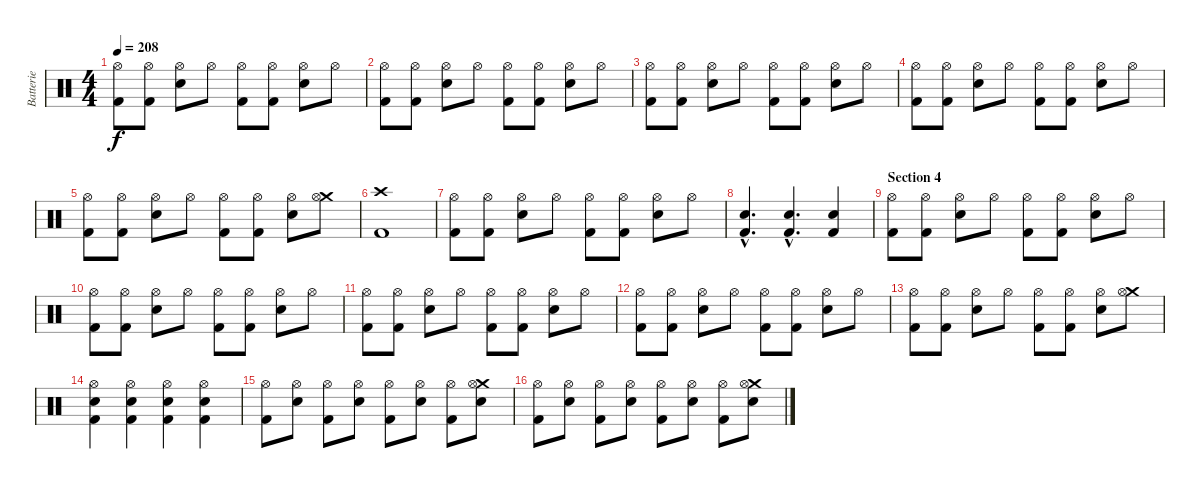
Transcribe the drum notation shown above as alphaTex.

\track ("Batterie" "Batterie") {instrument percussion}
\staff {score}
\articulation defaults
\ts (4 4)
\tempo 208
\clef neutral
\ks c
("Hi-Hat (open)" "Kick (hit) 2").8{dy f} ("Hi-Hat (open)" "Kick (hit) 2").8 ("Hi-Hat (open)" "Snare (hit) 2").8 "Hi-Hat (open)".8 ("Hi-Hat (open)" "Kick (hit) 2").8 ("Hi-Hat (open)" "Kick (hit) 2").8 ("Hi-Hat (open)" "Snare (hit) 2").8 "Hi-Hat (open)".8 |
("Hi-Hat (open)" "Kick (hit) 2").8 ("Hi-Hat (open)" "Kick (hit) 2").8 ("Hi-Hat (open)" "Snare (hit) 2").8 "Hi-Hat (open)".8 ("Hi-Hat (open)" "Kick (hit) 2").8 ("Hi-Hat (open)" "Kick (hit) 2").8 ("Hi-Hat (open)" "Snare (hit) 2").8 "Hi-Hat (open)".8 |
("Hi-Hat (open)" "Kick (hit) 2").8 ("Hi-Hat (open)" "Kick (hit) 2").8 ("Hi-Hat (open)" "Snare (hit) 2").8 "Hi-Hat (open)".8 ("Hi-Hat (open)" "Kick (hit) 2").8 ("Hi-Hat (open)" "Kick (hit) 2").8 ("Hi-Hat (open)" "Snare (hit) 2").8 "Hi-Hat (open)".8 |
("Hi-Hat (open)" "Kick (hit) 2").8 ("Hi-Hat (open)" "Kick (hit) 2").8 ("Hi-Hat (open)" "Snare (hit) 2").8 "Hi-Hat (open)".8 ("Hi-Hat (open)" "Kick (hit) 2").8 ("Hi-Hat (open)" "Kick (hit) 2").8 ("Hi-Hat (open)" "Snare (hit) 2").8 "Hi-Hat (open)".8 |
("Hi-Hat (open)" "Kick (hit) 2").8 ("Hi-Hat (open)" "Kick (hit) 2").8 ("Hi-Hat (open)" "Snare (hit) 2").8 "Hi-Hat (open)".8 ("Hi-Hat (open)" "Kick (hit) 2").8 ("Hi-Hat (open)" "Kick (hit) 2").8 ("Hi-Hat (open)" "Snare (hit) 2").8 ("Crash medium (hit)" "Hi-Hat (open)").8 |
("Crash high (hit)" "Kick (hit) 2").1 |
("Hi-Hat (open)" "Kick (hit) 2").8 ("Hi-Hat (open)" "Kick (hit) 2").8 ("Hi-Hat (open)" "Snare (hit) 2").8 "Hi-Hat (open)".8 ("Hi-Hat (open)" "Kick (hit) 2").8 ("Hi-Hat (open)" "Kick (hit) 2").8 ("Hi-Hat (open)" "Snare (hit) 2").8 "Hi-Hat (open)".8 |
("Snare (hit) 2"{hac} "Kick (hit) 2"{hac}).4{d} ("Snare (hit) 2"{hac} "Kick (hit) 2"{hac}).4{d} ("Snare (hit) 2" "Kick (hit) 2").4 |
\section ("" "Section 4")
("Hi-Hat (open)" "Kick (hit) 2").8 ("Hi-Hat (open)" "Kick (hit) 2").8 ("Hi-Hat (open)" "Snare (hit) 2").8 "Hi-Hat (open)".8 ("Hi-Hat (open)" "Kick (hit) 2").8 ("Hi-Hat (open)" "Kick (hit) 2").8 ("Hi-Hat (open)" "Snare (hit) 2").8 "Hi-Hat (open)".8 |
("Hi-Hat (open)" "Kick (hit) 2").8 ("Hi-Hat (open)" "Kick (hit) 2").8 ("Hi-Hat (open)" "Snare (hit) 2").8 "Hi-Hat (open)".8 ("Hi-Hat (open)" "Kick (hit) 2").8 ("Hi-Hat (open)" "Kick (hit) 2").8 ("Hi-Hat (open)" "Snare (hit) 2").8 "Hi-Hat (open)".8 |
("Hi-Hat (open)" "Kick (hit) 2").8 ("Hi-Hat (open)" "Kick (hit) 2").8 ("Hi-Hat (open)" "Snare (hit) 2").8 "Hi-Hat (open)".8 ("Hi-Hat (open)" "Kick (hit) 2").8 ("Hi-Hat (open)" "Kick (hit) 2").8 ("Hi-Hat (open)" "Snare (hit) 2").8 "Hi-Hat (open)".8 |
("Hi-Hat (open)" "Kick (hit) 2").8 ("Hi-Hat (open)" "Kick (hit) 2").8 ("Hi-Hat (open)" "Snare (hit) 2").8 "Hi-Hat (open)".8 ("Hi-Hat (open)" "Kick (hit) 2").8 ("Hi-Hat (open)" "Kick (hit) 2").8 ("Hi-Hat (open)" "Snare (hit) 2").8 "Hi-Hat (open)".8 |
("Hi-Hat (open)" "Kick (hit) 2").8 ("Hi-Hat (open)" "Kick (hit) 2").8 ("Hi-Hat (open)" "Snare (hit) 2").8 "Hi-Hat (open)".8 ("Hi-Hat (open)" "Kick (hit) 2").8 ("Hi-Hat (open)" "Kick (hit) 2").8 ("Hi-Hat (open)" "Snare (hit) 2").8 ("Crash medium (hit)" "Hi-Hat (open)").8 |
("Hi-Hat (open)" "Snare (hit) 2" "Kick (hit) 2").4 ("Hi-Hat (open)" "Snare (hit) 2" "Kick (hit) 2").4 ("Hi-Hat (open)" "Snare (hit) 2" "Kick (hit) 2").4 ("Hi-Hat (open)" "Snare (hit) 2" "Kick (hit) 2").4 |
("Hi-Hat (open)" "Kick (hit) 2").8 ("Hi-Hat (open)" "Snare (hit) 2").8 ("Hi-Hat (open)" "Kick (hit) 2").8 ("Hi-Hat (open)" "Snare (hit) 2").8 ("Hi-Hat (open)" "Kick (hit) 2").8 ("Hi-Hat (open)" "Snare (hit) 2").8 ("Hi-Hat (open)" "Kick (hit) 2").8 ("Crash medium (hit)" "Hi-Hat (open)" "Snare (hit) 2").8 |
("Hi-Hat (open)" "Kick (hit) 2").8 ("Hi-Hat (open)" "Snare (hit) 2").8 ("Hi-Hat (open)" "Kick (hit) 2").8 ("Hi-Hat (open)" "Snare (hit) 2").8 ("Hi-Hat (open)" "Kick (hit) 2").8 ("Hi-Hat (open)" "Snare (hit) 2").8 ("Hi-Hat (open)" "Kick (hit) 2").8 ("Crash medium (hit)" "Hi-Hat (open)" "Snare (hit) 2").8
